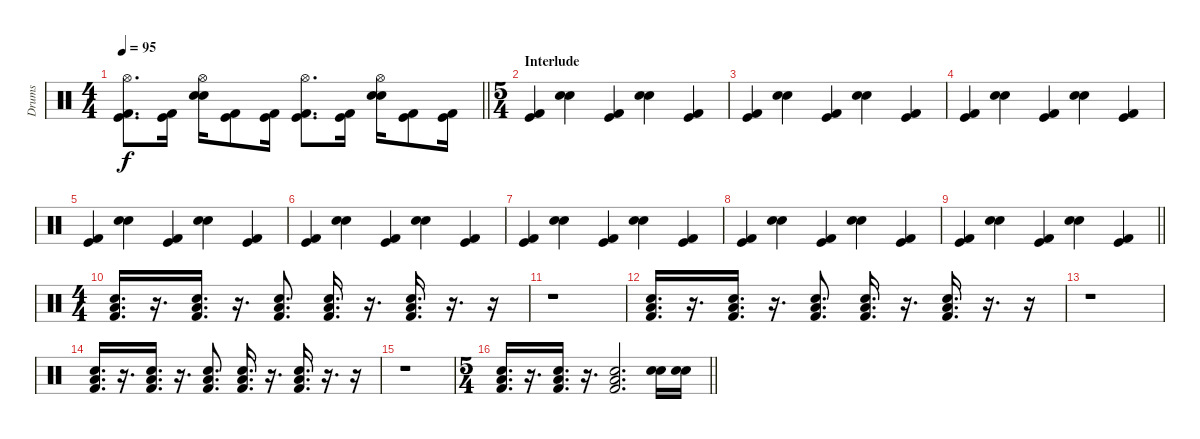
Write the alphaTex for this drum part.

\track ("Drums" "Drums") {instrument percussion}
\staff {score}
\articulation defaults
\ts (4 4)
\tempo 95
\clef neutral
\barLineRight lightlight
\ks c
("Hi-Hat (open)" "Kick (hit)" "Kick (hit) 2").8{d dy f} ("Kick (hit)" "Kick (hit) 2").16 ("Hi-Hat (open)" "Snare (hit) 2" "Electric Snare (hit)").16 ("Kick (hit)" "Kick (hit) 2").8 ("Kick (hit)" "Kick (hit) 2").16 ("Hi-Hat (open)" "Kick (hit)" "Kick (hit) 2").8{d} ("Kick (hit)" "Kick (hit) 2").16 ("Hi-Hat (open)" "Snare (hit) 2" "Electric Snare (hit)").16 ("Kick (hit)" "Kick (hit) 2").8 ("Kick (hit)" "Kick (hit) 2").16 |
\ts (5 4)
\section ("" "Interlude")
("Kick (hit)" "Kick (hit) 2").4 ("Snare (hit) 2" "Electric Snare (hit)").4 ("Kick (hit)" "Kick (hit) 2").4 ("Snare (hit) 2" "Electric Snare (hit)").4 ("Kick (hit)" "Kick (hit) 2").4 |
("Kick (hit)" "Kick (hit) 2").4 ("Snare (hit) 2" "Electric Snare (hit)").4 ("Kick (hit)" "Kick (hit) 2").4 ("Snare (hit) 2" "Electric Snare (hit)").4 ("Kick (hit)" "Kick (hit) 2").4 |
("Kick (hit)" "Kick (hit) 2").4 ("Snare (hit) 2" "Electric Snare (hit)").4 ("Kick (hit)" "Kick (hit) 2").4 ("Snare (hit) 2" "Electric Snare (hit)").4 ("Kick (hit)" "Kick (hit) 2").4 |
("Kick (hit)" "Kick (hit) 2").4 ("Snare (hit) 2" "Electric Snare (hit)").4 ("Kick (hit)" "Kick (hit) 2").4 ("Snare (hit) 2" "Electric Snare (hit)").4 ("Kick (hit)" "Kick (hit) 2").4 |
("Kick (hit)" "Kick (hit) 2").4 ("Snare (hit) 2" "Electric Snare (hit)").4 ("Kick (hit)" "Kick (hit) 2").4 ("Snare (hit) 2" "Electric Snare (hit)").4 ("Kick (hit)" "Kick (hit) 2").4 |
("Kick (hit)" "Kick (hit) 2").4 ("Snare (hit) 2" "Electric Snare (hit)").4 ("Kick (hit)" "Kick (hit) 2").4 ("Snare (hit) 2" "Electric Snare (hit)").4 ("Kick (hit)" "Kick (hit) 2").4 |
("Kick (hit)" "Kick (hit) 2").4 ("Snare (hit) 2" "Electric Snare (hit)").4 ("Kick (hit)" "Kick (hit) 2").4 ("Snare (hit) 2" "Electric Snare (hit)").4 ("Kick (hit)" "Kick (hit) 2").4 |
\barLineRight lightlight
("Kick (hit)" "Kick (hit) 2").4 ("Snare (hit) 2" "Electric Snare (hit)").4 ("Kick (hit)" "Kick (hit) 2").4 ("Snare (hit) 2" "Electric Snare (hit)").4 ("Kick (hit)" "Kick (hit) 2").4 |
\ts (4 4)
("Snare (hit) 2" "Low Tom (hit)" "Kick (hit) 2").16{d} r.16{d} ("Snare (hit) 2" "Low Tom (hit)" "Kick (hit) 2").16{d} r.16{d} ("Snare (hit) 2" "Low Tom (hit)" "Kick (hit) 2").8{d} ("Snare (hit) 2" "Low Tom (hit)" "Kick (hit) 2").16{d} r.16{d} ("Snare (hit) 2" "Low Tom (hit)" "Kick (hit) 2").16{d} r.16{d} r.16 |
r.1 |
("Snare (hit) 2" "Low Tom (hit)" "Kick (hit) 2").16{d} r.16{d} ("Snare (hit) 2" "Low Tom (hit)" "Kick (hit) 2").16{d} r.16{d} ("Snare (hit) 2" "Low Tom (hit)" "Kick (hit) 2").8{d} ("Snare (hit) 2" "Low Tom (hit)" "Kick (hit) 2").16{d} r.16{d} ("Snare (hit) 2" "Low Tom (hit)" "Kick (hit) 2").16{d} r.16{d} r.16 |
r.1 |
("Snare (hit) 2" "Low Tom (hit)" "Kick (hit) 2").16{d} r.16{d} ("Snare (hit) 2" "Low Tom (hit)" "Kick (hit) 2").16{d} r.16{d} ("Snare (hit) 2" "Low Tom (hit)" "Kick (hit) 2").8{d} ("Snare (hit) 2" "Low Tom (hit)" "Kick (hit) 2").16{d} r.16{d} ("Snare (hit) 2" "Low Tom (hit)" "Kick (hit) 2").16{d} r.16{d} r.16 |
r.1 |
\ts (5 4)
\barLineRight lightlight
("Snare (hit) 2" "Low Tom (hit)" "Kick (hit) 2").16{d} r.16{d} ("Snare (hit) 2" "Low Tom (hit)" "Kick (hit) 2").16{d} r.16{d} ("Snare (hit) 2" "Low Tom (hit)" "Kick (hit) 2").2{d} ("Snare (hit) 2" "Electric Snare (hit)").16 ("Snare (hit) 2" "Electric Snare (hit)").16
